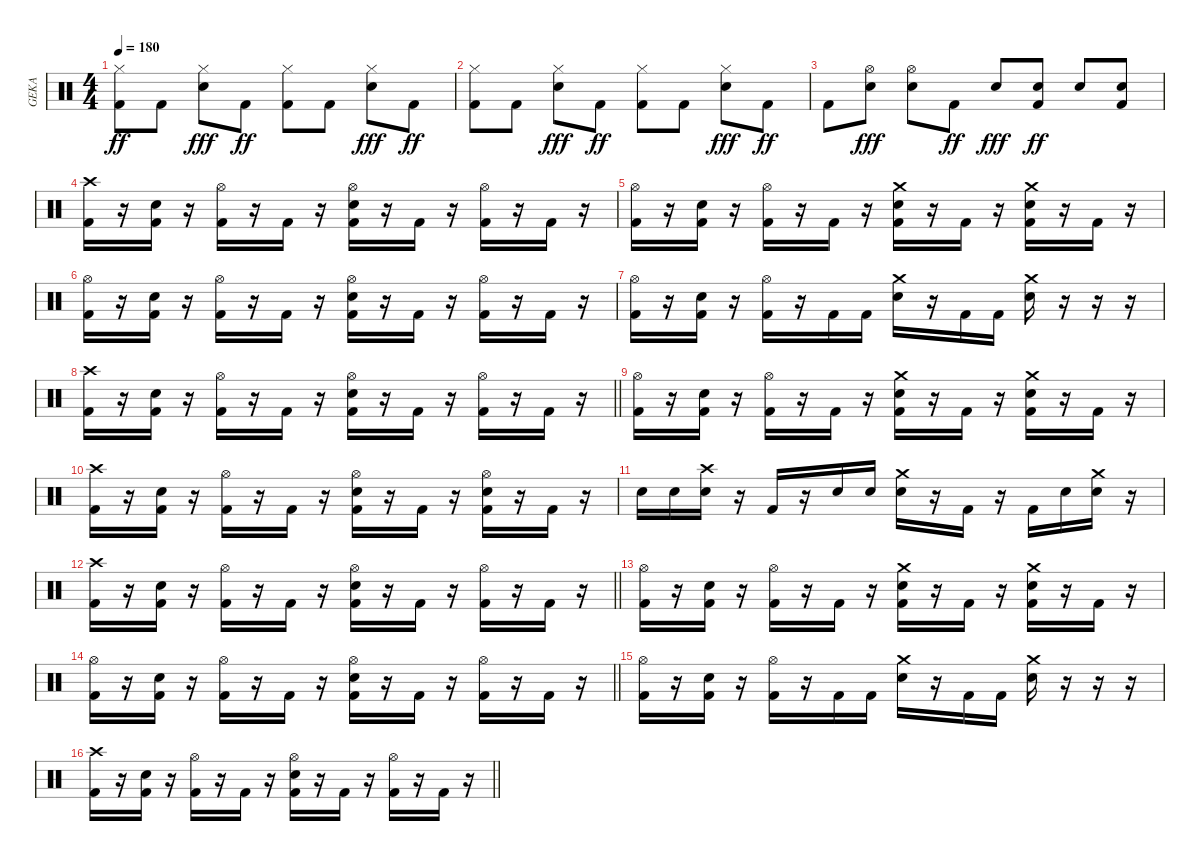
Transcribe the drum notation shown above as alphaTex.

\track ("GEKA" "GEKA") {instrument percussion}
\staff {score}
\articulation defaults
\ts (4 4)
\tempo 180
\clef neutral
\ks c
("Hi-Hat (closed)" "Kick (hit) 2").8{dy ff} "Kick (hit) 2".8 ("Hi-Hat (closed)" "Snare (hit) 2").8{dy fff} "Kick (hit) 2".8{dy ff} ("Hi-Hat (closed)" "Kick (hit) 2").8 "Kick (hit) 2".8 ("Hi-Hat (closed)" "Snare (hit) 2").8{dy fff} "Kick (hit) 2".8{dy ff} |
("Hi-Hat (closed)" "Kick (hit) 2").8 "Kick (hit) 2".8 ("Hi-Hat (closed)" "Snare (hit) 2").8{dy fff} "Kick (hit) 2".8{dy ff} ("Hi-Hat (closed)" "Kick (hit) 2").8 "Kick (hit) 2".8 ("Hi-Hat (closed)" "Snare (hit) 2").8{dy fff} "Kick (hit) 2".8{dy ff} |
"Kick (hit) 2".8 ("Hi-Hat (open)" "Snare (hit) 2").8{dy fff} ("Hi-Hat (open)" "Snare (hit) 2").8 "Kick (hit) 2".8{dy ff} "Snare (hit) 2".8{dy fff} ("Snare (hit) 2" "Kick (hit) 2").8{dy ff} "Snare (hit) 2".8 ("Snare (hit) 2" "Kick (hit) 2").8 |
("Crash high (hit)" "Kick (hit) 2").16 r.16 ("Snare (hit) 2" "Kick (hit) 2").16 r.16 ("Hi-Hat (open)" "Kick (hit) 2").16 r.16 "Kick (hit) 2".16 r.16 ("Hi-Hat (open)" "Snare (hit) 2" "Kick (hit) 2").16 r.16 "Kick (hit) 2".16 r.16 ("Hi-Hat (open)" "Kick (hit) 2").16 r.16 "Kick (hit) 2".16 r.16 |
("Hi-Hat (open)" "Kick (hit) 2").16 r.16 ("Snare (hit) 2" "Kick (hit) 2").16 r.16 ("Hi-Hat (open)" "Kick (hit) 2").16 r.16 "Kick (hit) 2".16 r.16 ("Crash medium (hit)" "Snare (hit) 2" "Kick (hit) 2").16 r.16 "Kick (hit) 2".16 r.16 ("Crash medium (hit)" "Snare (hit) 2" "Kick (hit) 2").16 r.16 "Kick (hit) 2".16 r.16 |
("Hi-Hat (open)" "Kick (hit) 2").16 r.16 ("Snare (hit) 2" "Kick (hit) 2").16 r.16 ("Hi-Hat (open)" "Kick (hit) 2").16 r.16 "Kick (hit) 2".16 r.16 ("Hi-Hat (open)" "Snare (hit) 2" "Kick (hit) 2").16 r.16 "Kick (hit) 2".16 r.16 ("Hi-Hat (open)" "Kick (hit) 2").16 r.16 "Kick (hit) 2".16 r.16 |
("Hi-Hat (open)" "Kick (hit) 2").16 r.16 ("Snare (hit) 2" "Kick (hit) 2").16 r.16 ("Hi-Hat (open)" "Kick (hit) 2").16 r.16 "Kick (hit) 2".16 "Kick (hit) 2".16 ("Crash medium (hit)" "Snare (hit) 2").16 r.16 "Kick (hit) 2".16 "Kick (hit) 2".16 ("Crash medium (hit)" "Snare (hit) 2").16 r.16 r.16 r.16 |
\barLineRight lightlight
("Crash high (hit)" "Kick (hit) 2").16 r.16 ("Snare (hit) 2" "Kick (hit) 2").16 r.16 ("Hi-Hat (open)" "Kick (hit) 2").16 r.16 "Kick (hit) 2".16 r.16 ("Hi-Hat (open)" "Snare (hit) 2" "Kick (hit) 2").16 r.16 "Kick (hit) 2".16 r.16 ("Hi-Hat (open)" "Kick (hit) 2").16 r.16 "Kick (hit) 2".16 r.16 |
("Hi-Hat (open)" "Kick (hit) 2").16 r.16 ("Snare (hit) 2" "Kick (hit) 2").16 r.16 ("Hi-Hat (open)" "Kick (hit) 2").16 r.16 "Kick (hit) 2".16 r.16 ("Crash medium (hit)" "Snare (hit) 2" "Kick (hit) 2").16 r.16 "Kick (hit) 2".16 r.16 ("Crash medium (hit)" "Snare (hit) 2" "Kick (hit) 2").16 r.16 "Kick (hit) 2".16 r.16 |
("Crash high (hit)" "Kick (hit) 2").16 r.16 ("Snare (hit) 2" "Kick (hit) 2").16 r.16 ("Hi-Hat (open)" "Kick (hit) 2").16 r.16 "Kick (hit) 2".16 r.16 ("Hi-Hat (open)" "Snare (hit) 2" "Kick (hit) 2").16 r.16 "Kick (hit) 2".16 r.16 ("Hi-Hat (open)" "Snare (hit) 2" "Kick (hit) 2").16 r.16 "Kick (hit) 2".16 r.16 |
"Snare (hit) 2".16 "Snare (hit) 2".16 ("Crash high (hit)" "Snare (hit) 2").16 r.16 "Kick (hit) 2".16 r.16 "Snare (hit) 2".16 "Snare (hit) 2".16 ("Crash medium (hit)" "Snare (hit) 2").16 r.16 "Kick (hit) 2".16 r.16 "Kick (hit) 2".16 "Snare (hit) 2".16 ("Crash medium (hit)" "Snare (hit) 2").16 r.16 |
\barLineRight lightlight
("Crash high (hit)" "Kick (hit) 2").16 r.16 ("Snare (hit) 2" "Kick (hit) 2").16 r.16 ("Hi-Hat (open)" "Kick (hit) 2").16 r.16 "Kick (hit) 2".16 r.16 ("Hi-Hat (open)" "Snare (hit) 2" "Kick (hit) 2").16 r.16 "Kick (hit) 2".16 r.16 ("Hi-Hat (open)" "Kick (hit) 2").16 r.16 "Kick (hit) 2".16 r.16 |
("Hi-Hat (open)" "Kick (hit) 2").16 r.16 ("Snare (hit) 2" "Kick (hit) 2").16 r.16 ("Hi-Hat (open)" "Kick (hit) 2").16 r.16 "Kick (hit) 2".16 r.16 ("Crash medium (hit)" "Snare (hit) 2" "Kick (hit) 2").16 r.16 "Kick (hit) 2".16 r.16 ("Crash medium (hit)" "Snare (hit) 2" "Kick (hit) 2").16 r.16 "Kick (hit) 2".16 r.16 |
\barLineRight lightlight
("Hi-Hat (open)" "Kick (hit) 2").16 r.16 ("Snare (hit) 2" "Kick (hit) 2").16 r.16 ("Hi-Hat (open)" "Kick (hit) 2").16 r.16 "Kick (hit) 2".16 r.16 ("Hi-Hat (open)" "Snare (hit) 2" "Kick (hit) 2").16 r.16 "Kick (hit) 2".16 r.16 ("Hi-Hat (open)" "Kick (hit) 2").16 r.16 "Kick (hit) 2".16 r.16 |
("Hi-Hat (open)" "Kick (hit) 2").16 r.16 ("Snare (hit) 2" "Kick (hit) 2").16 r.16 ("Hi-Hat (open)" "Kick (hit) 2").16 r.16 "Kick (hit) 2".16 "Kick (hit) 2".16 ("Crash medium (hit)" "Snare (hit) 2").16 r.16 "Kick (hit) 2".16 "Kick (hit) 2".16 ("Crash medium (hit)" "Snare (hit) 2").16 r.16 r.16 r.16 |
\barLineRight lightlight
("Crash high (hit)" "Kick (hit) 2").16 r.16 ("Snare (hit) 2" "Kick (hit) 2").16 r.16 ("Hi-Hat (open)" "Kick (hit) 2").16 r.16 "Kick (hit) 2".16 r.16 ("Hi-Hat (open)" "Snare (hit) 2" "Kick (hit) 2").16 r.16 "Kick (hit) 2".16 r.16 ("Hi-Hat (open)" "Kick (hit) 2").16 r.16 "Kick (hit) 2".16 r.16
